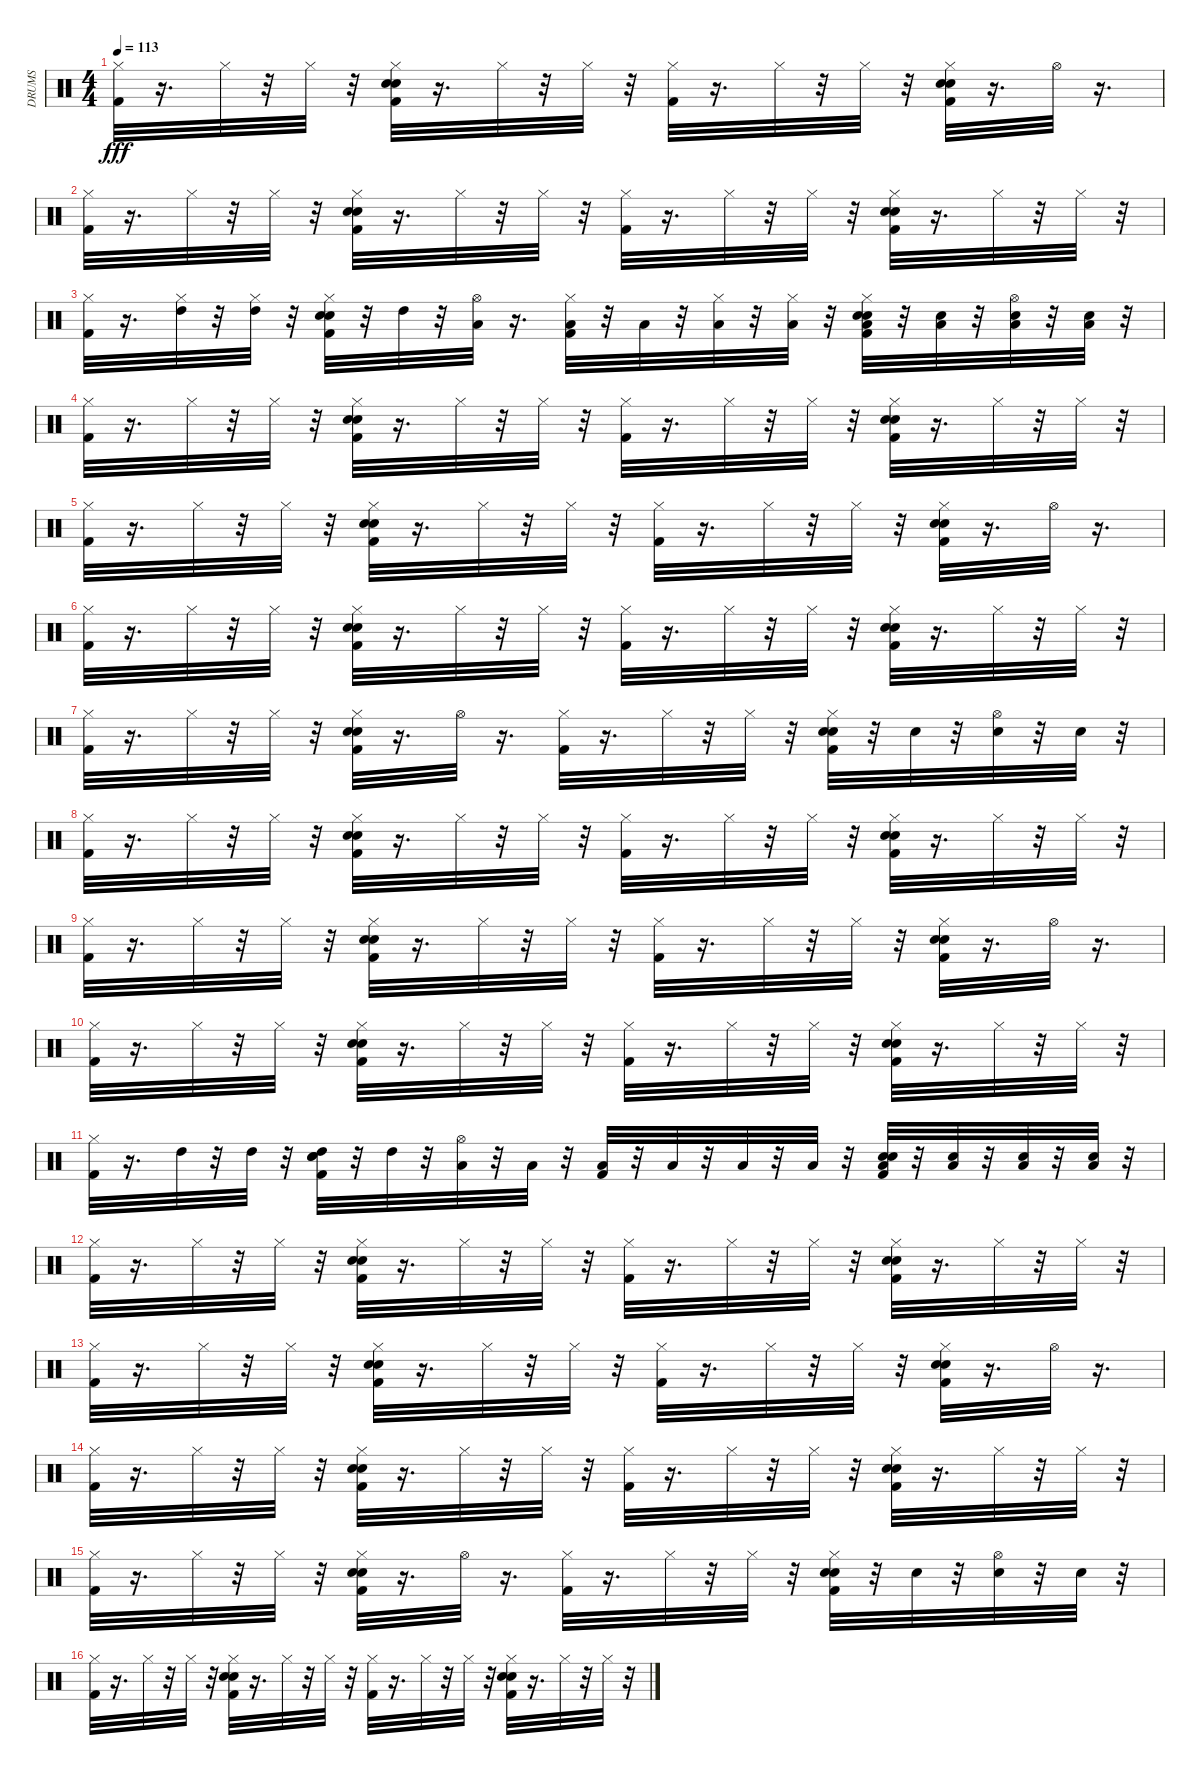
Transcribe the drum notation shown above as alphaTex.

\track ("DRUMS" "DRUMS") {instrument percussion}
\staff {score}
\articulation defaults
\ts (4 4)
\tempo 113
\clef neutral
\ks c
("Hi-Hat (closed)" "Kick (hit) 2").32{dy fff} r.16{d} "Hi-Hat (closed)".32 r.32 "Hi-Hat (closed)".32 r.32 ("Hi-Hat (closed)" "Snare (hit) 2" "Kick (hit) 2" "Hand Clap (hit)").32 r.16{d} "Hi-Hat (closed)".32 r.32 "Hi-Hat (closed)".32 r.32 ("Hi-Hat (closed)" "Kick (hit) 2").32 r.16{d} "Hi-Hat (closed)".32 r.32 "Hi-Hat (closed)".32 r.32 ("Hi-Hat (closed)" "Snare (hit) 2" "Kick (hit) 2" "Hand Clap (hit)").32 r.16{d} "Hi-Hat (open)".32 r.16{d} |
("Hi-Hat (closed)" "Kick (hit) 2").32 r.16{d} "Hi-Hat (closed)".32 r.32 "Hi-Hat (closed)".32 r.32 ("Hi-Hat (closed)" "Snare (hit) 2" "Kick (hit) 2" "Hand Clap (hit)").32 r.16{d} "Hi-Hat (closed)".32 r.32 "Hi-Hat (closed)".32 r.32 ("Hi-Hat (closed)" "Kick (hit) 2").32 r.16{d} "Hi-Hat (closed)".32 r.32 "Hi-Hat (closed)".32 r.32 ("Hi-Hat (closed)" "Snare (hit) 2" "Kick (hit) 2" "Hand Clap (hit)").32 r.16{d} "Hi-Hat (closed)".32 r.32 "Hi-Hat (closed)".32 r.32 |
("Hi-Hat (closed)" "Kick (hit) 2").32 r.16{d} ("High Tom (hit)" "Hi-Hat (closed)").32 r.32 ("High Tom (hit)" "Hi-Hat (closed)").32 r.32 ("Hi-Hat (closed)" "Snare (hit) 2" "Kick (hit) 2" "Hand Clap (hit)").32 r.32 "High Tom (hit)".32 r.32 ("Hi-Hat (open)" "Low Tom (hit)").32 r.16{d} ("Hi-Hat (closed)" "Kick (hit) 2" "Low Tom (hit)").32 r.32 "Low Tom (hit)".32 r.32 ("Hi-Hat (closed)" "Low Tom (hit)").32 r.32 ("Hi-Hat (closed)" "Low Tom (hit)").32 r.32 ("Hi-Hat (closed)" "Snare (hit) 2" "Kick (hit) 2" "Hand Clap (hit)" "Low Floor Tom (hit)").32 r.32 ("Hand Clap (hit)" "Low Floor Tom (hit)").32 r.32 ("Low Floor Tom (hit)" "Hi-Hat (open)" "Hand Clap (hit)").32 r.32 ("Hand Clap (hit)" "Low Floor Tom (hit)").32 r.32 |
("Hi-Hat (closed)" "Kick (hit) 2").32 r.16{d} "Hi-Hat (closed)".32 r.32 "Hi-Hat (closed)".32 r.32 ("Hi-Hat (closed)" "Snare (hit) 2" "Kick (hit) 2" "Hand Clap (hit)").32 r.16{d} "Hi-Hat (closed)".32 r.32 "Hi-Hat (closed)".32 r.32 ("Hi-Hat (closed)" "Kick (hit) 2").32 r.16{d} "Hi-Hat (closed)".32 r.32 "Hi-Hat (closed)".32 r.32 ("Hi-Hat (closed)" "Snare (hit) 2" "Kick (hit) 2" "Hand Clap (hit)").32 r.16{d} "Hi-Hat (closed)".32 r.32 "Hi-Hat (closed)".32 r.32 |
("Hi-Hat (closed)" "Kick (hit) 2").32 r.16{d} "Hi-Hat (closed)".32 r.32 "Hi-Hat (closed)".32 r.32 ("Hi-Hat (closed)" "Snare (hit) 2" "Kick (hit) 2" "Hand Clap (hit)").32 r.16{d} "Hi-Hat (closed)".32 r.32 "Hi-Hat (closed)".32 r.32 ("Hi-Hat (closed)" "Kick (hit) 2").32 r.16{d} "Hi-Hat (closed)".32 r.32 "Hi-Hat (closed)".32 r.32 ("Hi-Hat (closed)" "Snare (hit) 2" "Kick (hit) 2" "Hand Clap (hit)").32 r.16{d} "Hi-Hat (open)".32 r.16{d} |
("Hi-Hat (closed)" "Kick (hit) 2").32 r.16{d} "Hi-Hat (closed)".32 r.32 "Hi-Hat (closed)".32 r.32 ("Hi-Hat (closed)" "Snare (hit) 2" "Kick (hit) 2" "Hand Clap (hit)").32 r.16{d} "Hi-Hat (closed)".32 r.32 "Hi-Hat (closed)".32 r.32 ("Hi-Hat (closed)" "Kick (hit) 2").32 r.16{d} "Hi-Hat (closed)".32 r.32 "Hi-Hat (closed)".32 r.32 ("Hi-Hat (closed)" "Snare (hit) 2" "Kick (hit) 2" "Hand Clap (hit)").32 r.16{d} "Hi-Hat (closed)".32 r.32 "Hi-Hat (closed)".32 r.32 |
("Hi-Hat (closed)" "Kick (hit) 2").32 r.16{d} "Hi-Hat (closed)".32 r.32 "Hi-Hat (closed)".32 r.32 ("Hi-Hat (closed)" "Snare (hit) 2" "Kick (hit) 2" "Hand Clap (hit)").32 r.16{d} "Hi-Hat (open)".32 r.16{d} ("Hi-Hat (closed)" "Kick (hit) 2").32 r.16{d} "Hi-Hat (closed)".32 r.32 "Hi-Hat (closed)".32 r.32 ("Hi-Hat (closed)" "Snare (hit) 2" "Kick (hit) 2" "Hand Clap (hit)").32 r.32 "Hand Clap (hit)".32 r.32 ("Hi-Hat (open)" "Hand Clap (hit)").32 r.32 "Hand Clap (hit)".32 r.32 |
("Hi-Hat (closed)" "Kick (hit) 2").32 r.16{d} "Hi-Hat (closed)".32 r.32 "Hi-Hat (closed)".32 r.32 ("Hi-Hat (closed)" "Snare (hit) 2" "Kick (hit) 2" "Hand Clap (hit)").32 r.16{d} "Hi-Hat (closed)".32 r.32 "Hi-Hat (closed)".32 r.32 ("Hi-Hat (closed)" "Kick (hit) 2").32 r.16{d} "Hi-Hat (closed)".32 r.32 "Hi-Hat (closed)".32 r.32 ("Hi-Hat (closed)" "Snare (hit) 2" "Kick (hit) 2" "Hand Clap (hit)").32 r.16{d} "Hi-Hat (closed)".32 r.32 "Hi-Hat (closed)".32 r.32 |
("Hi-Hat (closed)" "Kick (hit) 2").32 r.16{d} "Hi-Hat (closed)".32 r.32 "Hi-Hat (closed)".32 r.32 ("Hi-Hat (closed)" "Snare (hit) 2" "Kick (hit) 2" "Hand Clap (hit)").32 r.16{d} "Hi-Hat (closed)".32 r.32 "Hi-Hat (closed)".32 r.32 ("Hi-Hat (closed)" "Kick (hit) 2").32 r.16{d} "Hi-Hat (closed)".32 r.32 "Hi-Hat (closed)".32 r.32 ("Hi-Hat (closed)" "Snare (hit) 2" "Kick (hit) 2" "Hand Clap (hit)").32 r.16{d} "Hi-Hat (open)".32 r.16{d} |
("Hi-Hat (closed)" "Kick (hit) 2").32 r.16{d} "Hi-Hat (closed)".32 r.32 "Hi-Hat (closed)".32 r.32 ("Hi-Hat (closed)" "Snare (hit) 2" "Kick (hit) 2" "Hand Clap (hit)").32 r.16{d} "Hi-Hat (closed)".32 r.32 "Hi-Hat (closed)".32 r.32 ("Hi-Hat (closed)" "Kick (hit) 2").32 r.16{d} "Hi-Hat (closed)".32 r.32 "Hi-Hat (closed)".32 r.32 ("Hi-Hat (closed)" "Snare (hit) 2" "Kick (hit) 2" "Hand Clap (hit)").32 r.16{d} "Hi-Hat (closed)".32 r.32 "Hi-Hat (closed)".32 r.32 |
("Hi-Hat (closed)" "Kick (hit) 2").32 r.16{d} "High Tom (hit)".32 r.32 "High Tom (hit)".32 r.32 ("High Tom (hit)" "Snare (hit) 2" "Kick (hit) 2" "Hand Clap (hit)").32 r.32 "High Tom (hit)".32 r.32 ("Low Tom (hit)" "Hi-Hat (open)").32 r.32 "Low Tom (hit)".32 r.32 ("Low Tom (hit)" "Kick (hit) 2").32 r.32 "Low Tom (hit)".32 r.32 "Low Floor Tom (hit)".32 r.32 "Low Floor Tom (hit)".32 r.32 ("Low Floor Tom (hit)" "Snare (hit) 2" "Kick (hit) 2" "Hand Clap (hit)").32 r.32 ("Low Floor Tom (hit)" "Hand Clap (hit)").32 r.32 ("Low Floor Tom (hit)" "Hand Clap (hit)").32 r.32 ("Low Floor Tom (hit)" "Hand Clap (hit)").32 r.32 |
("Hi-Hat (closed)" "Kick (hit) 2").32 r.16{d} "Hi-Hat (closed)".32 r.32 "Hi-Hat (closed)".32 r.32 ("Hi-Hat (closed)" "Snare (hit) 2" "Kick (hit) 2" "Hand Clap (hit)").32 r.16{d} "Hi-Hat (closed)".32 r.32 "Hi-Hat (closed)".32 r.32 ("Hi-Hat (closed)" "Kick (hit) 2").32 r.16{d} "Hi-Hat (closed)".32 r.32 "Hi-Hat (closed)".32 r.32 ("Hi-Hat (closed)" "Snare (hit) 2" "Kick (hit) 2" "Hand Clap (hit)").32 r.16{d} "Hi-Hat (closed)".32 r.32 "Hi-Hat (closed)".32 r.32 |
("Hi-Hat (closed)" "Kick (hit) 2").32 r.16{d} "Hi-Hat (closed)".32 r.32 "Hi-Hat (closed)".32 r.32 ("Hi-Hat (closed)" "Snare (hit) 2" "Kick (hit) 2" "Hand Clap (hit)").32 r.16{d} "Hi-Hat (closed)".32 r.32 "Hi-Hat (closed)".32 r.32 ("Hi-Hat (closed)" "Kick (hit) 2").32 r.16{d} "Hi-Hat (closed)".32 r.32 "Hi-Hat (closed)".32 r.32 ("Hi-Hat (closed)" "Snare (hit) 2" "Kick (hit) 2" "Hand Clap (hit)").32 r.16{d} "Hi-Hat (open)".32 r.16{d} |
("Hi-Hat (closed)" "Kick (hit) 2").32 r.16{d} "Hi-Hat (closed)".32 r.32 "Hi-Hat (closed)".32 r.32 ("Hi-Hat (closed)" "Snare (hit) 2" "Kick (hit) 2" "Hand Clap (hit)").32 r.16{d} "Hi-Hat (closed)".32 r.32 "Hi-Hat (closed)".32 r.32 ("Hi-Hat (closed)" "Kick (hit) 2").32 r.16{d} "Hi-Hat (closed)".32 r.32 "Hi-Hat (closed)".32 r.32 ("Hi-Hat (closed)" "Snare (hit) 2" "Kick (hit) 2" "Hand Clap (hit)").32 r.16{d} "Hi-Hat (closed)".32 r.32 "Hi-Hat (closed)".32 r.32 |
("Hi-Hat (closed)" "Kick (hit) 2").32 r.16{d} "Hi-Hat (closed)".32 r.32 "Hi-Hat (closed)".32 r.32 ("Hi-Hat (closed)" "Snare (hit) 2" "Kick (hit) 2" "Hand Clap (hit)").32 r.16{d} "Hi-Hat (open)".32 r.16{d} ("Hi-Hat (closed)" "Kick (hit) 2").32 r.16{d} "Hi-Hat (closed)".32 r.32 "Hi-Hat (closed)".32 r.32 ("Hi-Hat (closed)" "Snare (hit) 2" "Kick (hit) 2" "Hand Clap (hit)").32 r.32 "Hand Clap (hit)".32 r.32 ("Hi-Hat (open)" "Hand Clap (hit)").32 r.32 "Hand Clap (hit)".32 r.32 |
("Hi-Hat (closed)" "Kick (hit) 2").32 r.16{d} "Hi-Hat (closed)".32 r.32 "Hi-Hat (closed)".32 r.32 ("Hi-Hat (closed)" "Snare (hit) 2" "Kick (hit) 2" "Hand Clap (hit)").32 r.16{d} "Hi-Hat (closed)".32 r.32 "Hi-Hat (closed)".32 r.32 ("Hi-Hat (closed)" "Kick (hit) 2").32 r.16{d} "Hi-Hat (closed)".32 r.32 "Hi-Hat (closed)".32 r.32 ("Hi-Hat (closed)" "Snare (hit) 2" "Kick (hit) 2" "Hand Clap (hit)").32 r.16{d} "Hi-Hat (closed)".32 r.32 "Hi-Hat (closed)".32 r.32
